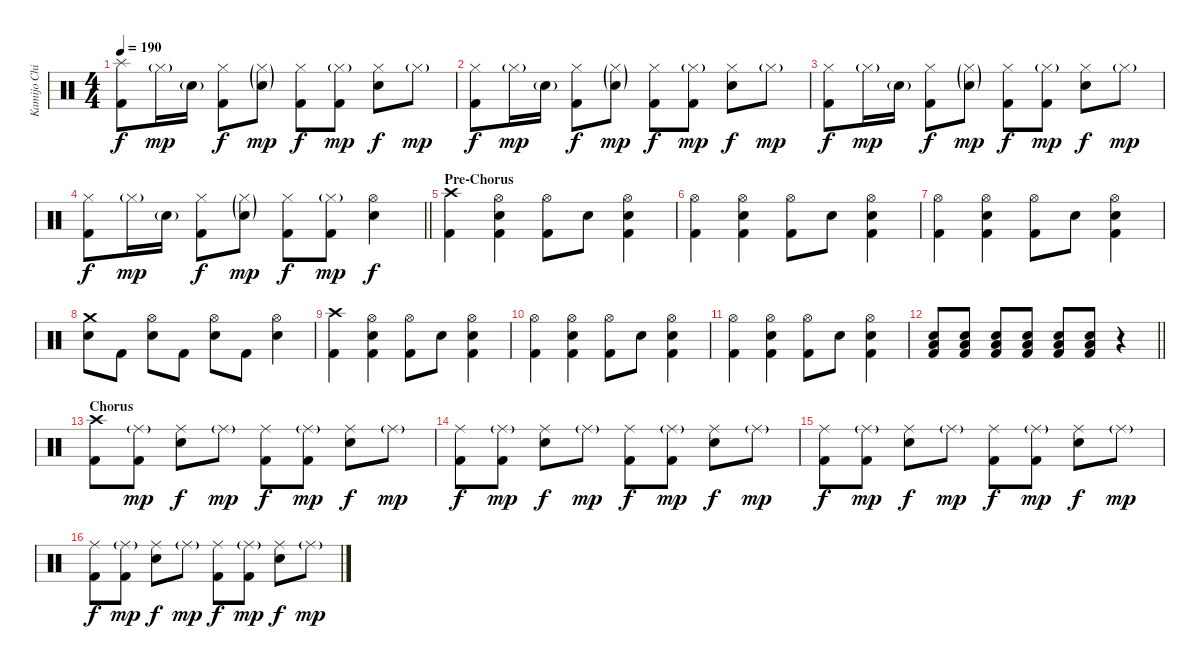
\track ("Kamijo Chihiro" "Kamijo Chi") {instrument percussion}
\staff {score}
\articulation defaults
\ts (4 4)
\tempo 190
\clef neutral
\ks c
("Splash (hit)" "Kick (hit) 2").8{dy f} "Hi-Hat (closed)"{g}.16{dy mp} "Snare (hit) 2"{g}.16 ("Hi-Hat (closed)" "Kick (hit) 2").8{dy f} ("Hi-Hat (closed)"{g} "Snare (hit) 2"{g}).8{dy mp} ("Hi-Hat (closed)" "Kick (hit) 2").8{dy f} ("Hi-Hat (closed)"{g} "Kick (hit) 2").8{dy mp} ("Hi-Hat (closed)" "Snare (hit) 2").8{dy f} "Hi-Hat (closed)"{g}.8{dy mp} |
("Hi-Hat (closed)" "Kick (hit) 2").8{dy f} "Hi-Hat (closed)"{g}.16{dy mp} "Snare (hit) 2"{g}.16 ("Hi-Hat (closed)" "Kick (hit) 2").8{dy f} ("Hi-Hat (closed)"{g} "Snare (hit) 2"{g}).8{dy mp} ("Hi-Hat (closed)" "Kick (hit) 2").8{dy f} ("Hi-Hat (closed)"{g} "Kick (hit) 2").8{dy mp} ("Hi-Hat (closed)" "Snare (hit) 2").8{dy f} "Hi-Hat (closed)"{g}.8{dy mp} |
("Hi-Hat (closed)" "Kick (hit) 2").8{dy f} "Hi-Hat (closed)"{g}.16{dy mp} "Snare (hit) 2"{g}.16 ("Hi-Hat (closed)" "Kick (hit) 2").8{dy f} ("Hi-Hat (closed)"{g} "Snare (hit) 2"{g}).8{dy mp} ("Hi-Hat (closed)" "Kick (hit) 2").8{dy f} ("Hi-Hat (closed)"{g} "Kick (hit) 2").8{dy mp} ("Hi-Hat (closed)" "Snare (hit) 2").8{dy f} "Hi-Hat (closed)"{g}.8{dy mp} |
\barLineRight lightlight
("Hi-Hat (closed)" "Kick (hit) 2").8{dy f} "Hi-Hat (closed)"{g}.16{dy mp} "Snare (hit) 2"{g}.16 ("Hi-Hat (closed)" "Kick (hit) 2").8{dy f} ("Hi-Hat (closed)"{g} "Snare (hit) 2"{g}).8{dy mp} ("Hi-Hat (closed)" "Kick (hit) 2").8{dy f} ("Hi-Hat (closed)"{g} "Kick (hit) 2").8{dy mp} ("Hi-Hat (open)" "Snare (hit) 2").4{dy f} |
\section ("" "Pre-Chorus")
("Crash high (hit)" "Kick (hit) 2").4 ("Hi-Hat (open)" "Snare (hit) 2" "Kick (hit) 2").4 ("Hi-Hat (open)" "Kick (hit) 2").8 "Snare (hit) 2".8 ("Hi-Hat (open)" "Snare (hit) 2" "Kick (hit) 2").4 |
("Hi-Hat (open)" "Kick (hit) 2").4 ("Hi-Hat (open)" "Snare (hit) 2" "Kick (hit) 2").4 ("Hi-Hat (open)" "Kick (hit) 2").8 "Snare (hit) 2".8 ("Hi-Hat (open)" "Snare (hit) 2" "Kick (hit) 2").4 |
("Hi-Hat (open)" "Kick (hit) 2").4 ("Hi-Hat (open)" "Snare (hit) 2" "Kick (hit) 2").4 ("Hi-Hat (open)" "Kick (hit) 2").8 "Snare (hit) 2".8 ("Hi-Hat (open)" "Snare (hit) 2" "Kick (hit) 2").4 |
("Crash medium (hit)" "Snare (hit) 2").8 "Kick (hit) 2".8 ("Hi-Hat (open)" "Snare (hit) 2").8 "Kick (hit) 2".8 ("Hi-Hat (open)" "Snare (hit) 2").8 "Kick (hit) 2".8 ("Hi-Hat (open)" "Snare (hit) 2").4 |
("Crash high (hit)" "Kick (hit) 2").4 ("Hi-Hat (open)" "Snare (hit) 2" "Kick (hit) 2").4 ("Hi-Hat (open)" "Kick (hit) 2").8 "Snare (hit) 2".8 ("Hi-Hat (open)" "Snare (hit) 2" "Kick (hit) 2").4 |
("Hi-Hat (open)" "Kick (hit) 2").4 ("Hi-Hat (open)" "Snare (hit) 2" "Kick (hit) 2").4 ("Hi-Hat (open)" "Kick (hit) 2").8 "Snare (hit) 2".8 ("Hi-Hat (open)" "Snare (hit) 2" "Kick (hit) 2").4 |
("Hi-Hat (open)" "Kick (hit) 2").4 ("Hi-Hat (open)" "Snare (hit) 2" "Kick (hit) 2").4 ("Hi-Hat (open)" "Kick (hit) 2").8 "Snare (hit) 2".8 ("Hi-Hat (open)" "Snare (hit) 2" "Kick (hit) 2").4 |
\barLineRight lightlight
("Snare (hit) 2" "Low Floor Tom (hit)" "Kick (hit) 2").8 ("Snare (hit) 2" "Low Floor Tom (hit)" "Kick (hit) 2").8 ("Snare (hit) 2" "Low Floor Tom (hit)" "Kick (hit) 2").8 ("Snare (hit) 2" "Low Floor Tom (hit)" "Kick (hit) 2").8 ("Snare (hit) 2" "Low Floor Tom (hit)" "Kick (hit) 2").8 ("Snare (hit) 2" "Low Floor Tom (hit)" "Kick (hit) 2").8 r.4 |
\section ("" "Chorus")
("Crash high (hit)" "Kick (hit) 2").8 ("Ride (middle)"{g} "Kick (hit) 2").8{dy mp} ("Ride (middle)" "Snare (hit) 2").8{dy f} "Ride (middle)"{g}.8{dy mp} ("Ride (middle)" "Kick (hit) 2").8{dy f} ("Ride (middle)"{g} "Kick (hit) 2").8{dy mp} ("Ride (middle)" "Snare (hit) 2").8{dy f} "Ride (middle)"{g}.8{dy mp} |
("Ride (middle)" "Kick (hit) 2").8{dy f} ("Ride (middle)"{g} "Kick (hit) 2").8{dy mp} ("Ride (middle)" "Snare (hit) 2").8{dy f} "Ride (middle)"{g}.8{dy mp} ("Ride (middle)" "Kick (hit) 2").8{dy f} ("Ride (middle)"{g} "Kick (hit) 2").8{dy mp} ("Ride (middle)" "Snare (hit) 2").8{dy f} "Ride (middle)"{g}.8{dy mp} |
("Ride (middle)" "Kick (hit) 2").8{dy f} ("Ride (middle)"{g} "Kick (hit) 2").8{dy mp} ("Ride (middle)" "Snare (hit) 2").8{dy f} "Ride (middle)"{g}.8{dy mp} ("Ride (middle)" "Kick (hit) 2").8{dy f} ("Ride (middle)"{g} "Kick (hit) 2").8{dy mp} ("Ride (middle)" "Snare (hit) 2").8{dy f} "Ride (middle)"{g}.8{dy mp} |
("Ride (middle)" "Kick (hit) 2").8{dy f} ("Ride (middle)"{g} "Kick (hit) 2").8{dy mp} ("Ride (middle)" "Snare (hit) 2").8{dy f} "Ride (middle)"{g}.8{dy mp} ("Ride (middle)" "Kick (hit) 2").8{dy f} ("Ride (middle)"{g} "Kick (hit) 2").8{dy mp} ("Ride (middle)" "Snare (hit) 2").8{dy f} "Ride (middle)"{g}.8{dy mp}
